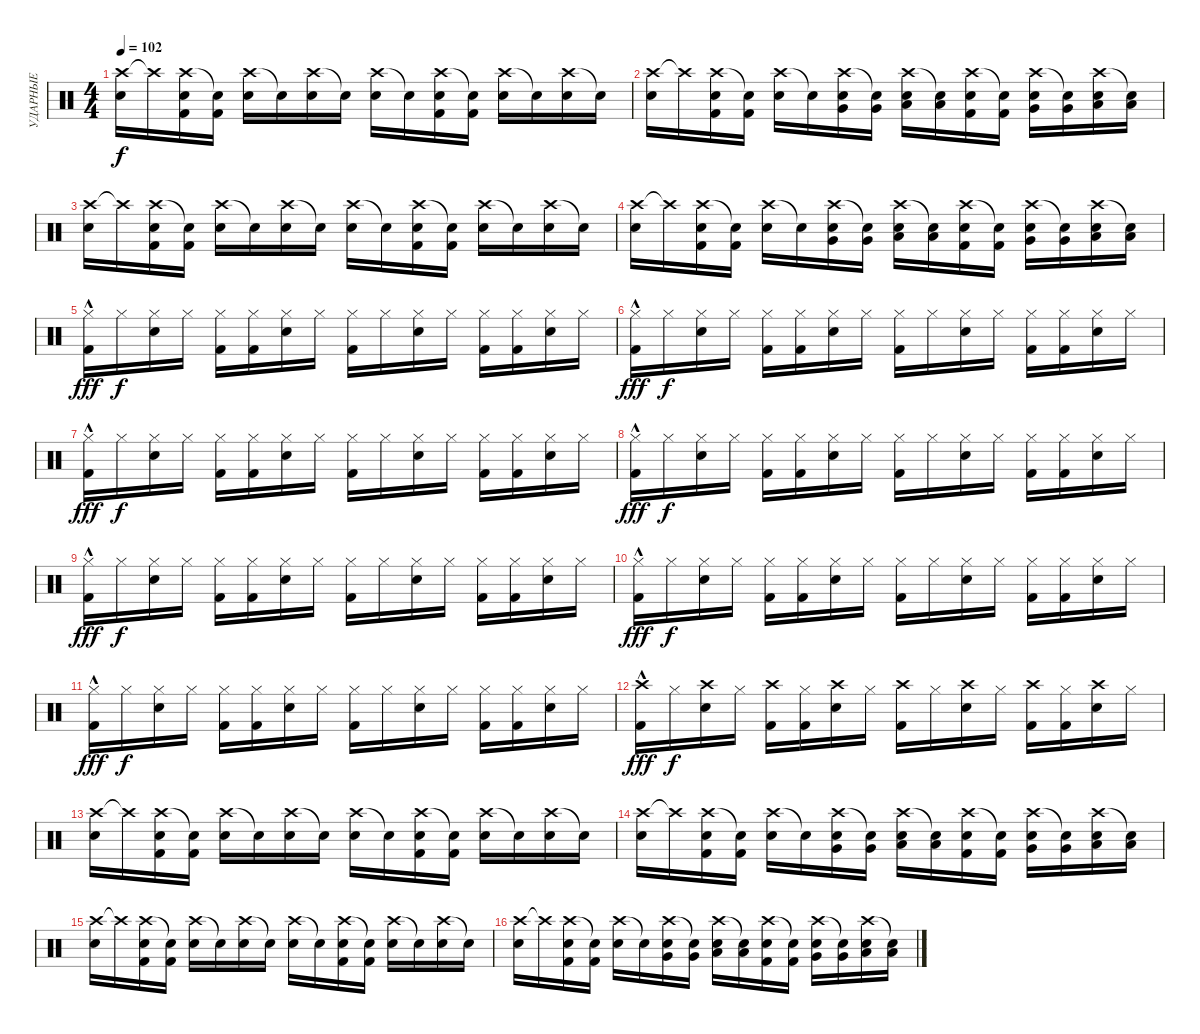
\track ("УДАРНЫЕ" "УДАРНЫЕ") {instrument percussion}
\staff {score}
\articulation defaults
\ts (4 4)
\tempo 102
\clef neutral
\ks c
("Crash high (hit)" "Electric Snare (hit)").16{dy f} "Crash high (hit)"{t}.16 ("Crash high (hit)" "Kick (hit) 2" "Electric Snare (hit)").16 ("Snare (hit)"{t} "Kick (hit) 2").16 ("Crash high (hit)" "Electric Snare (hit)").16 "Snare (hit)"{t}.16 ("Crash high (hit)" "Electric Snare (hit)").16 "Snare (hit)"{t}.16 ("Crash high (hit)" "Electric Snare (hit)").16 "Snare (hit)"{t}.16 ("Crash high (hit)" "Kick (hit) 2" "Electric Snare (hit)").16 ("Snare (hit)"{t} "Kick (hit) 2").16 ("Crash high (hit)" "Electric Snare (hit)").16 "Snare (hit)"{t}.16 ("Crash high (hit)" "Electric Snare (hit)").16 "Snare (hit)"{t}.16 |
("Crash high (hit)" "Electric Snare (hit)").16 "Crash high (hit)"{t}.16 ("Crash high (hit)" "Kick (hit) 2" "Electric Snare (hit)").16 ("Snare (hit)"{t} "Kick (hit) 2").16 ("Crash high (hit)" "Electric Snare (hit)").16 "Snare (hit)"{t}.16 ("Crash high (hit)" "Very Low Tom (hit)" "Electric Snare (hit)").16 ("Snare (hit)"{t} "Very Low Tom (hit)").16 ("Crash high (hit)" "Low Tom (hit)" "Electric Snare (hit)").16 ("Snare (hit)"{t} "Low Tom (hit)").16 ("Crash high (hit)" "Kick (hit) 2" "Electric Snare (hit)").16 ("Snare (hit)"{t} "Kick (hit) 2").16 ("Crash high (hit)" "Very Low Tom (hit)" "Electric Snare (hit)").16 ("Snare (hit)"{t} "Very Low Tom (hit)").16 ("Crash high (hit)" "Low Tom (hit)" "Electric Snare (hit)").16 ("Snare (hit)"{t} "Low Tom (hit)").16 |
("Crash high (hit)" "Electric Snare (hit)").16 "Crash high (hit)"{t}.16 ("Crash high (hit)" "Kick (hit) 2" "Electric Snare (hit)").16 ("Snare (hit)"{t} "Kick (hit) 2").16 ("Crash high (hit)" "Electric Snare (hit)").16 "Snare (hit)"{t}.16 ("Crash high (hit)" "Electric Snare (hit)").16 "Snare (hit)"{t}.16 ("Crash high (hit)" "Electric Snare (hit)").16 "Snare (hit)"{t}.16 ("Crash high (hit)" "Kick (hit) 2" "Electric Snare (hit)").16 ("Snare (hit)"{t} "Kick (hit) 2").16 ("Crash high (hit)" "Electric Snare (hit)").16 "Snare (hit)"{t}.16 ("Crash high (hit)" "Electric Snare (hit)").16 "Snare (hit)"{t}.16 |
("Crash high (hit)" "Electric Snare (hit)").16 "Crash high (hit)"{t}.16 ("Crash high (hit)" "Kick (hit) 2" "Electric Snare (hit)").16 ("Snare (hit)"{t} "Kick (hit) 2").16 ("Crash high (hit)" "Electric Snare (hit)").16 "Snare (hit)"{t}.16 ("Crash high (hit)" "Very Low Tom (hit)" "Electric Snare (hit)").16 ("Snare (hit)"{t} "Very Low Tom (hit)").16 ("Crash high (hit)" "Low Tom (hit)" "Electric Snare (hit)").16 ("Snare (hit)"{t} "Low Tom (hit)").16 ("Crash high (hit)" "Kick (hit) 2" "Electric Snare (hit)").16 ("Snare (hit)"{t} "Kick (hit) 2").16 ("Crash high (hit)" "Very Low Tom (hit)" "Electric Snare (hit)").16 ("Snare (hit)"{t} "Very Low Tom (hit)").16 ("Crash high (hit)" "Low Tom (hit)" "Electric Snare (hit)").16 ("Snare (hit)"{t} "Low Tom (hit)").16 |
("Hi-Hat (closed)"{hac} "Kick (hit) 2").16{dy fff} "Hi-Hat (closed)".16{dy f} ("Hi-Hat (closed)" "Electric Snare (hit)").16 "Hi-Hat (closed)".16 ("Hi-Hat (closed)" "Kick (hit) 2").16 ("Hi-Hat (closed)" "Kick (hit) 2").16 ("Hi-Hat (closed)" "Electric Snare (hit)").16 "Hi-Hat (closed)".16 ("Hi-Hat (closed)" "Kick (hit) 2").16 "Hi-Hat (closed)".16 ("Hi-Hat (closed)" "Electric Snare (hit)").16 "Hi-Hat (closed)".16 ("Hi-Hat (closed)" "Kick (hit) 2").16 ("Hi-Hat (closed)" "Kick (hit) 2").16 ("Hi-Hat (closed)" "Electric Snare (hit)").16 "Hi-Hat (closed)".16 |
("Hi-Hat (closed)"{hac} "Kick (hit) 2").16{dy fff} "Hi-Hat (closed)".16{dy f} ("Hi-Hat (closed)" "Electric Snare (hit)").16 "Hi-Hat (closed)".16 ("Hi-Hat (closed)" "Kick (hit) 2").16 ("Hi-Hat (closed)" "Kick (hit) 2").16 ("Hi-Hat (closed)" "Electric Snare (hit)").16 "Hi-Hat (closed)".16 ("Hi-Hat (closed)" "Kick (hit) 2").16 "Hi-Hat (closed)".16 ("Hi-Hat (closed)" "Electric Snare (hit)").16 "Hi-Hat (closed)".16 ("Hi-Hat (closed)" "Kick (hit) 2").16 ("Hi-Hat (closed)" "Kick (hit) 2").16 ("Hi-Hat (closed)" "Electric Snare (hit)").16 "Hi-Hat (closed)".16 |
("Hi-Hat (closed)"{hac} "Kick (hit) 2").16{dy fff} "Hi-Hat (closed)".16{dy f} ("Hi-Hat (closed)" "Electric Snare (hit)").16 "Hi-Hat (closed)".16 ("Hi-Hat (closed)" "Kick (hit) 2").16 ("Hi-Hat (closed)" "Kick (hit) 2").16 ("Hi-Hat (closed)" "Electric Snare (hit)").16 "Hi-Hat (closed)".16 ("Hi-Hat (closed)" "Kick (hit) 2").16 "Hi-Hat (closed)".16 ("Hi-Hat (closed)" "Electric Snare (hit)").16 "Hi-Hat (closed)".16 ("Hi-Hat (closed)" "Kick (hit) 2").16 ("Hi-Hat (closed)" "Kick (hit) 2").16 ("Hi-Hat (closed)" "Electric Snare (hit)").16 "Hi-Hat (closed)".16 |
("Hi-Hat (closed)"{hac} "Kick (hit) 2").16{dy fff} "Hi-Hat (closed)".16{dy f} ("Hi-Hat (closed)" "Electric Snare (hit)").16 "Hi-Hat (closed)".16 ("Hi-Hat (closed)" "Kick (hit) 2").16 ("Hi-Hat (closed)" "Kick (hit) 2").16 ("Hi-Hat (closed)" "Electric Snare (hit)").16 "Hi-Hat (closed)".16 ("Hi-Hat (closed)" "Kick (hit) 2").16 "Hi-Hat (closed)".16 ("Hi-Hat (closed)" "Electric Snare (hit)").16 "Hi-Hat (closed)".16 ("Hi-Hat (closed)" "Kick (hit) 2").16 ("Hi-Hat (closed)" "Kick (hit) 2").16 ("Hi-Hat (closed)" "Electric Snare (hit)").16 "Hi-Hat (closed)".16 |
("Hi-Hat (closed)"{hac} "Kick (hit) 2").16{dy fff} "Hi-Hat (closed)".16{dy f} ("Hi-Hat (closed)" "Electric Snare (hit)").16 "Hi-Hat (closed)".16 ("Hi-Hat (closed)" "Kick (hit) 2").16 ("Hi-Hat (closed)" "Kick (hit) 2").16 ("Hi-Hat (closed)" "Electric Snare (hit)").16 "Hi-Hat (closed)".16 ("Hi-Hat (closed)" "Kick (hit) 2").16 "Hi-Hat (closed)".16 ("Hi-Hat (closed)" "Electric Snare (hit)").16 "Hi-Hat (closed)".16 ("Hi-Hat (closed)" "Kick (hit) 2").16 ("Hi-Hat (closed)" "Kick (hit) 2").16 ("Hi-Hat (closed)" "Electric Snare (hit)").16 "Hi-Hat (closed)".16 |
("Hi-Hat (closed)"{hac} "Kick (hit) 2").16{dy fff} "Hi-Hat (closed)".16{dy f} ("Hi-Hat (closed)" "Electric Snare (hit)").16 "Hi-Hat (closed)".16 ("Hi-Hat (closed)" "Kick (hit) 2").16 ("Hi-Hat (closed)" "Kick (hit) 2").16 ("Hi-Hat (closed)" "Electric Snare (hit)").16 "Hi-Hat (closed)".16 ("Hi-Hat (closed)" "Kick (hit) 2").16 "Hi-Hat (closed)".16 ("Hi-Hat (closed)" "Electric Snare (hit)").16 "Hi-Hat (closed)".16 ("Hi-Hat (closed)" "Kick (hit) 2").16 ("Hi-Hat (closed)" "Kick (hit) 2").16 ("Hi-Hat (closed)" "Electric Snare (hit)").16 "Hi-Hat (closed)".16 |
("Hi-Hat (closed)"{hac} "Kick (hit) 2").16{dy fff} "Hi-Hat (closed)".16{dy f} ("Hi-Hat (closed)" "Electric Snare (hit)").16 "Hi-Hat (closed)".16 ("Hi-Hat (closed)" "Kick (hit) 2").16 ("Hi-Hat (closed)" "Kick (hit) 2").16 ("Hi-Hat (closed)" "Electric Snare (hit)").16 "Hi-Hat (closed)".16 ("Hi-Hat (closed)" "Kick (hit) 2").16 "Hi-Hat (closed)".16 ("Hi-Hat (closed)" "Electric Snare (hit)").16 "Hi-Hat (closed)".16 ("Hi-Hat (closed)" "Kick (hit) 2").16 ("Hi-Hat (closed)" "Kick (hit) 2").16 ("Hi-Hat (closed)" "Electric Snare (hit)").16 "Hi-Hat (closed)".16 |
("Crash high (hit)"{hac} "Kick (hit) 2").16{dy fff} "Hi-Hat (closed)".16{dy f} ("Crash high (hit)" "Electric Snare (hit)").16 "Hi-Hat (closed)".16 ("Crash high (hit)" "Kick (hit) 2").16 ("Hi-Hat (closed)" "Kick (hit) 2").16 ("Crash high (hit)" "Electric Snare (hit)").16 "Hi-Hat (closed)".16 ("Crash high (hit)" "Kick (hit) 2").16 "Hi-Hat (closed)".16 ("Crash high (hit)" "Electric Snare (hit)").16 "Hi-Hat (closed)".16 ("Crash high (hit)" "Kick (hit) 2").16 ("Hi-Hat (closed)" "Kick (hit) 2").16 ("Crash high (hit)" "Electric Snare (hit)").16 "Hi-Hat (closed)".16 |
("Crash high (hit)" "Electric Snare (hit)").16 "Crash high (hit)"{t}.16 ("Crash high (hit)" "Kick (hit) 2" "Electric Snare (hit)").16 ("Snare (hit)"{t} "Kick (hit) 2").16 ("Crash high (hit)" "Electric Snare (hit)").16 "Snare (hit)"{t}.16 ("Crash high (hit)" "Electric Snare (hit)").16 "Snare (hit)"{t}.16 ("Crash high (hit)" "Electric Snare (hit)").16 "Snare (hit)"{t}.16 ("Crash high (hit)" "Kick (hit) 2" "Electric Snare (hit)").16 ("Snare (hit)"{t} "Kick (hit) 2").16 ("Crash high (hit)" "Electric Snare (hit)").16 "Snare (hit)"{t}.16 ("Crash high (hit)" "Electric Snare (hit)").16 "Snare (hit)"{t}.16 |
("Crash high (hit)" "Electric Snare (hit)").16 "Crash high (hit)"{t}.16 ("Crash high (hit)" "Kick (hit) 2" "Electric Snare (hit)").16 ("Snare (hit)"{t} "Kick (hit) 2").16 ("Crash high (hit)" "Electric Snare (hit)").16 "Snare (hit)"{t}.16 ("Crash high (hit)" "Very Low Tom (hit)" "Electric Snare (hit)").16 ("Snare (hit)"{t} "Very Low Tom (hit)").16 ("Crash high (hit)" "Low Tom (hit)" "Electric Snare (hit)").16 ("Snare (hit)"{t} "Low Tom (hit)").16 ("Crash high (hit)" "Kick (hit) 2" "Electric Snare (hit)").16 ("Snare (hit)"{t} "Kick (hit) 2").16 ("Crash high (hit)" "Very Low Tom (hit)" "Electric Snare (hit)").16 ("Snare (hit)"{t} "Very Low Tom (hit)").16 ("Crash high (hit)" "Low Tom (hit)" "Electric Snare (hit)").16 ("Snare (hit)"{t} "Low Tom (hit)").16 |
("Crash high (hit)" "Electric Snare (hit)").16 "Crash high (hit)"{t}.16 ("Crash high (hit)" "Kick (hit) 2" "Electric Snare (hit)").16 ("Snare (hit)"{t} "Kick (hit) 2").16 ("Crash high (hit)" "Electric Snare (hit)").16 "Snare (hit)"{t}.16 ("Crash high (hit)" "Electric Snare (hit)").16 "Snare (hit)"{t}.16 ("Crash high (hit)" "Electric Snare (hit)").16 "Snare (hit)"{t}.16 ("Crash high (hit)" "Kick (hit) 2" "Electric Snare (hit)").16 ("Snare (hit)"{t} "Kick (hit) 2").16 ("Crash high (hit)" "Electric Snare (hit)").16 "Snare (hit)"{t}.16 ("Crash high (hit)" "Electric Snare (hit)").16 "Snare (hit)"{t}.16 |
("Crash high (hit)" "Electric Snare (hit)").16 "Crash high (hit)"{t}.16 ("Crash high (hit)" "Kick (hit) 2" "Electric Snare (hit)").16 ("Snare (hit)"{t} "Kick (hit) 2").16 ("Crash high (hit)" "Electric Snare (hit)").16 "Snare (hit)"{t}.16 ("Crash high (hit)" "Very Low Tom (hit)" "Electric Snare (hit)").16 ("Snare (hit)"{t} "Very Low Tom (hit)").16 ("Crash high (hit)" "Low Tom (hit)" "Electric Snare (hit)").16 ("Snare (hit)"{t} "Low Tom (hit)").16 ("Crash high (hit)" "Kick (hit) 2" "Electric Snare (hit)").16 ("Snare (hit)"{t} "Kick (hit) 2").16 ("Crash high (hit)" "Very Low Tom (hit)" "Electric Snare (hit)").16 ("Snare (hit)"{t} "Very Low Tom (hit)").16 ("Crash high (hit)" "Low Tom (hit)" "Electric Snare (hit)").16 ("Snare (hit)"{t} "Low Tom (hit)").16
